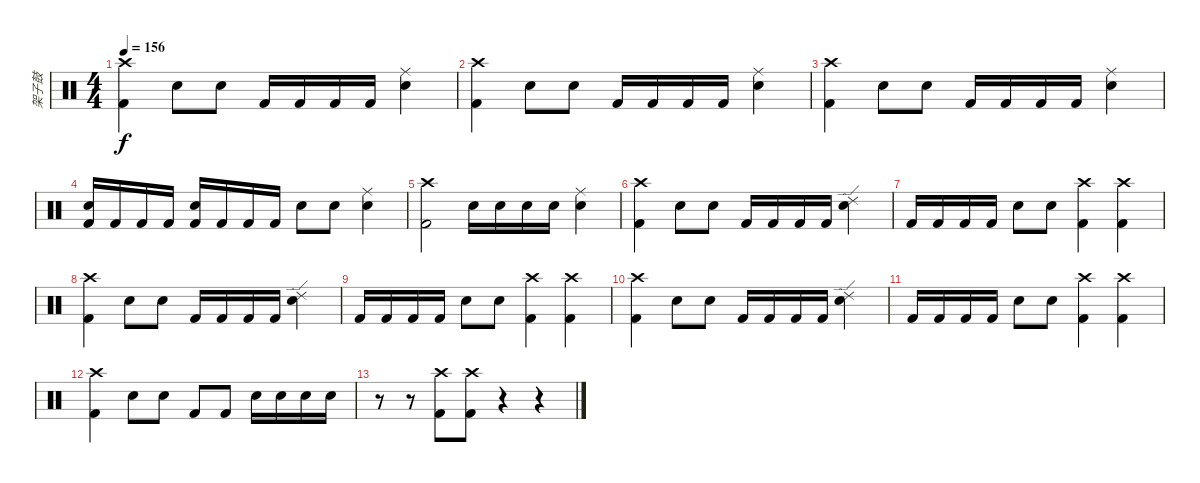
\track ("架子鼓" "架子鼓") {instrument percussion}
\staff {score}
\articulation defaults
\ts (4 4)
\tempo 156
\clef neutral
\ks c
("Kick (hit) 2" "Crash high (hit)").4{dy f} "Snare (hit) 2".8 "Snare (hit) 2".8 "Kick (hit) 2".16 "Kick (hit) 2".16 "Kick (hit) 2".16 "Kick (hit) 2".16 ("Electric Snare (hit)" "Ride (middle)").4 |
("Kick (hit) 2" "Crash high (hit)").4 "Snare (hit) 2".8 "Snare (hit) 2".8 "Kick (hit) 2".16 "Kick (hit) 2".16 "Kick (hit) 2".16 "Kick (hit) 2".16 ("Electric Snare (hit)" "Ride (middle)").4 |
("Kick (hit) 2" "Crash high (hit)").4 "Snare (hit) 2".8 "Snare (hit) 2".8 "Kick (hit) 2".16 "Kick (hit) 2".16 "Kick (hit) 2".16 "Kick (hit) 2".16 ("Electric Snare (hit)" "Ride (middle)").4 |
("Kick (hit) 2" "Electric Snare (hit)").16 "Kick (hit) 2".16 "Kick (hit) 2".16 "Kick (hit) 2".16 ("Kick (hit) 2" "Electric Snare (hit)").16 "Kick (hit) 2".16 "Kick (hit) 2".16 "Kick (hit) 2".16 "Snare (hit) 2".8 "Snare (hit) 2".8 ("Electric Snare (hit)" "Ride (middle)").4 |
("Kick (hit) 2" "Crash high (hit)").2 "Snare (hit) 2".16 "Snare (hit) 2".16 "Snare (hit) 2".16 "Snare (hit) 2".16 ("Electric Snare (hit)" "Ride (middle)").4 |
("Kick (hit) 2" "Crash high (hit)").4 "Snare (hit) 2".8 "Snare (hit) 2".8 "Kick (hit) 2".16 "Kick (hit) 2".16 "Kick (hit) 2".16 "Kick (hit) 2".16 ("Electric Snare (hit)" "Ride (edge) 2").4 |
"Kick (hit) 2".16 "Kick (hit) 2".16 "Kick (hit) 2".16 "Kick (hit) 2".16 "Snare (hit) 2".8 "Snare (hit) 2".8 ("Kick (hit) 2" "Crash high (hit)").4 ("Kick (hit) 2" "Crash high (hit)").4 |
("Kick (hit) 2" "Crash high (hit)").4 "Snare (hit) 2".8 "Snare (hit) 2".8 "Kick (hit) 2".16 "Kick (hit) 2".16 "Kick (hit) 2".16 "Kick (hit) 2".16 ("Electric Snare (hit)" "Ride (edge) 2").4 |
"Kick (hit) 2".16 "Kick (hit) 2".16 "Kick (hit) 2".16 "Kick (hit) 2".16 "Snare (hit) 2".8 "Snare (hit) 2".8 ("Kick (hit) 2" "Crash high (hit)").4 ("Kick (hit) 2" "Crash high (hit)").4 |
("Kick (hit) 2" "Crash high (hit)").4 "Snare (hit) 2".8 "Snare (hit) 2".8 "Kick (hit) 2".16 "Kick (hit) 2".16 "Kick (hit) 2".16 "Kick (hit) 2".16 ("Electric Snare (hit)" "Ride (edge) 2").4 |
"Kick (hit) 2".16 "Kick (hit) 2".16 "Kick (hit) 2".16 "Kick (hit) 2".16 "Snare (hit) 2".8 "Snare (hit) 2".8 ("Kick (hit) 2" "Crash high (hit)").4 ("Kick (hit) 2" "Crash high (hit)").4 |
("Kick (hit) 2" "Crash high (hit)").4 "Snare (hit) 2".8 "Snare (hit) 2".8 "Kick (hit) 2".8 "Kick (hit) 2".8 "Electric Snare (hit)".16 "Electric Snare (hit)".16 "Electric Snare (hit)".16 "Electric Snare (hit)".16 |
r.8 r.8 ("Kick (hit) 2" "Crash high (hit)").8 ("Kick (hit) 2" "Crash high (hit)").8 r.4 r.4
